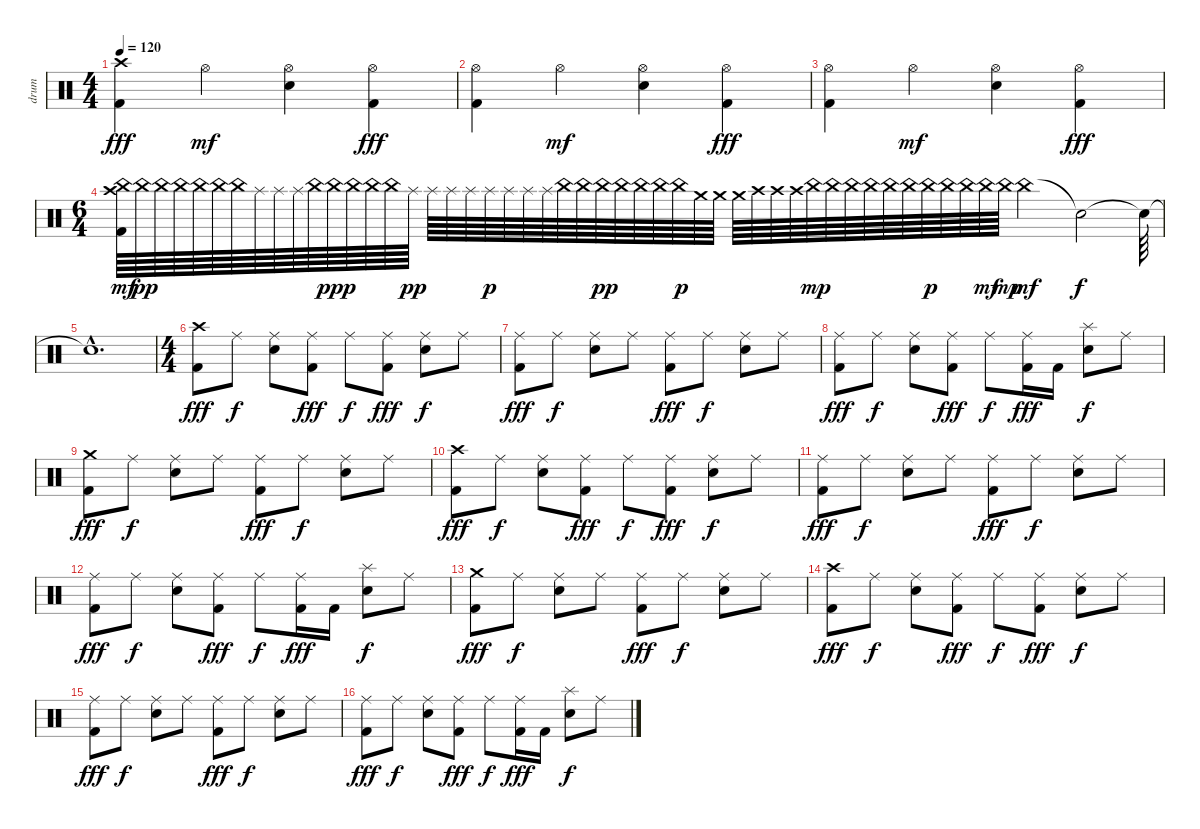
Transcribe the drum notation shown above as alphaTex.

\track ("drum" "drum") {instrument percussion}
\staff {score}
\articulation defaults
\ts (4 4)
\tempo 120
\clef neutral
\ks c
("Crash high (hit)" "Kick (hit) 2").4{dy fff} "Hi-Hat (open)".4{dy mf} ("Hi-Hat (open)" "Electric Snare (hit)").4 ("Hi-Hat (open)" "Kick (hit) 2").4{dy fff} |
("Hi-Hat (open)" "Kick (hit) 2").4 "Hi-Hat (open)".4{dy mf} ("Hi-Hat (open)" "Electric Snare (hit)").4 ("Hi-Hat (open)" "Kick (hit) 2").4{dy fff} |
("Hi-Hat (open)" "Kick (hit) 2").4 "Hi-Hat (open)".4{dy mf} ("Hi-Hat (open)" "Electric Snare (hit)").4 ("Hi-Hat (open)" "Kick (hit) 2").4{dy fff} |
\ts (6 4)
("Kick (hit) 2" "Crash high (hit)" "China (hit)").64{dy mf} "China (hit)".64{dy pp} "China (hit)".64 "China (hit)".64 "China (hit)".64 "China (hit)".64 "China (hit)".64 "Splash (hit)".64 "Splash (hit)".64 "Splash (hit)".64 "China (hit)".64 "China (hit)".64{dy ppp} "China (hit)".64 "China (hit)".64 "China (hit)".64 "Splash (hit)".64{dy pp} "Splash (hit)".64 "Splash (hit)".64 "Splash (hit)".64 "Splash (hit)".64{dy p} "Splash (hit)".64 "Splash (hit)".64 "Splash (hit)".64 "China (hit)".64 "China (hit)".64 "China (hit)".64{dy pp} "China (hit)".64 "China (hit)".64 "China (hit)".64 "China (hit)".64{dy p} "Crash medium (hit)".64 "Crash medium (hit)".64 "Crash medium (hit)".64 "Crash high (hit)".64 "Crash high (hit)".64 "Crash high (hit)".64 "China (hit)".64{dy mp} "China (hit)".64 "China (hit)".64 "China (hit)".64 "China (hit)".64 "China (hit)".64 "China (hit)".64{dy p} "China (hit)".64 "China (hit)".64 "China (hit)".64{dy mf} "China (hit)".64{dy mp} "China (hit)".4{dy mf} "Snare (hit)"{t}.2{dy f} "Snare (hit)"{t}.64 |
"Snare (hit)"{hac t}.1{d} |
\ts (4 4)
("Crash high (hit)" "Kick (hit) 2").8{dy fff} "Ride (middle)".8{dy f} ("Ride (middle)" "Electric Snare (hit)").8 ("Ride (middle)" "Kick (hit) 2").8{dy fff} "Ride (middle)".8{dy f} ("Ride (middle)" "Kick (hit) 2").8{dy fff} ("Ride (middle)" "Electric Snare (hit)").8{dy f} "Ride (middle)".8 |
("Ride (middle)" "Kick (hit) 2").8{dy fff} "Ride (middle)".8{dy f} ("Ride (middle)" "Electric Snare (hit)").8 "Ride (middle)".8 ("Ride (middle)" "Kick (hit) 2").8{dy fff} "Ride (middle)".8{dy f} ("Ride (middle)" "Electric Snare (hit)").8 "Ride (middle)".8 |
("Ride (middle)" "Kick (hit) 2").8{dy fff} "Ride (middle)".8{dy f} ("Ride (middle)" "Electric Snare (hit)").8 ("Ride (middle)" "Kick (hit) 2").8{dy fff} "Ride (middle)".8{dy f} ("Ride (middle)" "Kick (hit) 2").16{dy fff} "Kick (hit) 2".16 ("Splash (hit)" "Electric Snare (hit)").8{dy f} "Ride (middle)".8 |
("Crash medium (hit)" "Kick (hit) 2").8{dy fff} "Ride (middle)".8{dy f} ("Ride (middle)" "Electric Snare (hit)").8 "Ride (middle)".8 ("Ride (middle)" "Kick (hit) 2").8{dy fff} "Ride (middle)".8{dy f} ("Ride (middle)" "Electric Snare (hit)").8 "Ride (middle)".8 |
("Crash high (hit)" "Kick (hit) 2").8{dy fff} "Ride (middle)".8{dy f} ("Ride (middle)" "Electric Snare (hit)").8 ("Ride (middle)" "Kick (hit) 2").8{dy fff} "Ride (middle)".8{dy f} ("Ride (middle)" "Kick (hit) 2").8{dy fff} ("Ride (middle)" "Electric Snare (hit)").8{dy f} "Ride (middle)".8 |
("Ride (middle)" "Kick (hit) 2").8{dy fff} "Ride (middle)".8{dy f} ("Ride (middle)" "Electric Snare (hit)").8 "Ride (middle)".8 ("Ride (middle)" "Kick (hit) 2").8{dy fff} "Ride (middle)".8{dy f} ("Ride (middle)" "Electric Snare (hit)").8 "Ride (middle)".8 |
("Ride (middle)" "Kick (hit) 2").8{dy fff} "Ride (middle)".8{dy f} ("Ride (middle)" "Electric Snare (hit)").8 ("Ride (middle)" "Kick (hit) 2").8{dy fff} "Ride (middle)".8{dy f} ("Ride (middle)" "Kick (hit) 2").16{dy fff} "Kick (hit) 2".16 ("Splash (hit)" "Electric Snare (hit)").8{dy f} "Ride (middle)".8 |
("Crash medium (hit)" "Kick (hit) 2").8{dy fff} "Ride (middle)".8{dy f} ("Ride (middle)" "Electric Snare (hit)").8 "Ride (middle)".8 ("Ride (middle)" "Kick (hit) 2").8{dy fff} "Ride (middle)".8{dy f} ("Ride (middle)" "Electric Snare (hit)").8 "Ride (middle)".8 |
("Crash high (hit)" "Kick (hit) 2").8{dy fff} "Ride (middle)".8{dy f} ("Ride (middle)" "Electric Snare (hit)").8 ("Ride (middle)" "Kick (hit) 2").8{dy fff} "Ride (middle)".8{dy f} ("Ride (middle)" "Kick (hit) 2").8{dy fff} ("Ride (middle)" "Electric Snare (hit)").8{dy f} "Ride (middle)".8 |
("Ride (middle)" "Kick (hit) 2").8{dy fff} "Ride (middle)".8{dy f} ("Ride (middle)" "Electric Snare (hit)").8 "Ride (middle)".8 ("Ride (middle)" "Kick (hit) 2").8{dy fff} "Ride (middle)".8{dy f} ("Ride (middle)" "Electric Snare (hit)").8 "Ride (middle)".8 |
("Ride (middle)" "Kick (hit) 2").8{dy fff} "Ride (middle)".8{dy f} ("Ride (middle)" "Electric Snare (hit)").8 ("Ride (middle)" "Kick (hit) 2").8{dy fff} "Ride (middle)".8{dy f} ("Ride (middle)" "Kick (hit) 2").16{dy fff} "Kick (hit) 2".16 ("Splash (hit)" "Electric Snare (hit)").8{dy f} "Ride (middle)".8
